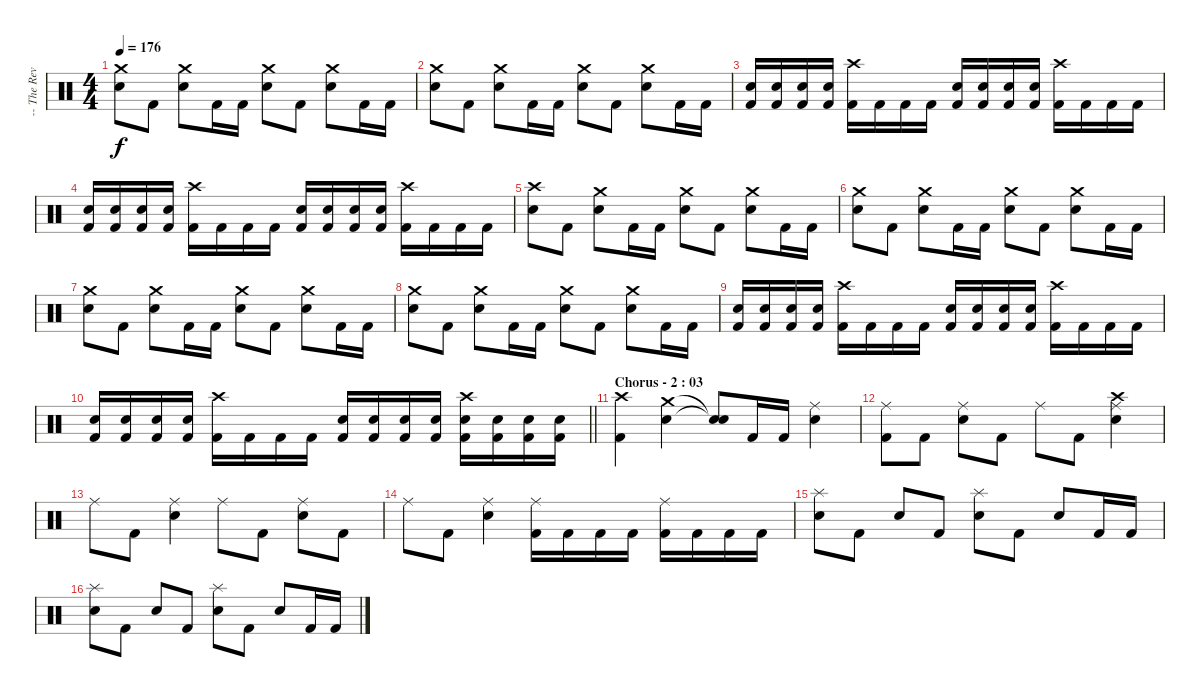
\track ("-- The Reverend - Drums" "-- The Rev") {instrument percussion}
\staff {score}
\articulation defaults
\ts (4 4)
\tempo 176
\clef neutral
\ks c
("Crash medium (hit)" "Electric Snare (hit)").8{dy f} "Kick (hit) 2".8 ("Crash medium (hit)" "Electric Snare (hit)").8 "Kick (hit) 2".16 "Kick (hit) 2".16 ("Crash medium (hit)" "Electric Snare (hit)").8 "Kick (hit) 2".8 ("Crash medium (hit)" "Electric Snare (hit)").8 "Kick (hit) 2".16 "Kick (hit) 2".16 |
("Crash medium (hit)" "Electric Snare (hit)").8 "Kick (hit) 2".8 ("Crash medium (hit)" "Electric Snare (hit)").8 "Kick (hit) 2".16 "Kick (hit) 2".16 ("Crash medium (hit)" "Electric Snare (hit)").8 "Kick (hit) 2".8 ("Crash medium (hit)" "Electric Snare (hit)").8 "Kick (hit) 2".16 "Kick (hit) 2".16 |
("Electric Snare (hit)" "Kick (hit) 2").16 ("Electric Snare (hit)" "Kick (hit) 2").16 ("Electric Snare (hit)" "Kick (hit) 2").16 ("Electric Snare (hit)" "Kick (hit) 2").16 ("Crash high (hit)" "Kick (hit) 2").16 "Kick (hit) 2".16 "Kick (hit) 2".16 "Kick (hit) 2".16 ("Electric Snare (hit)" "Kick (hit) 2").16 ("Electric Snare (hit)" "Kick (hit) 2").16 ("Electric Snare (hit)" "Kick (hit) 2").16 ("Electric Snare (hit)" "Kick (hit) 2").16 ("Crash high (hit)" "Kick (hit) 2").16 "Kick (hit) 2".16 "Kick (hit) 2".16 "Kick (hit) 2".16 |
("Electric Snare (hit)" "Kick (hit) 2").16 ("Electric Snare (hit)" "Kick (hit) 2").16 ("Electric Snare (hit)" "Kick (hit) 2").16 ("Electric Snare (hit)" "Kick (hit) 2").16 ("Crash high (hit)" "Kick (hit) 2").16 "Kick (hit) 2".16 "Kick (hit) 2".16 "Kick (hit) 2".16 ("Electric Snare (hit)" "Kick (hit) 2").16 ("Electric Snare (hit)" "Kick (hit) 2").16 ("Electric Snare (hit)" "Kick (hit) 2").16 ("Electric Snare (hit)" "Kick (hit) 2").16 ("Crash high (hit)" "Kick (hit) 2").16 "Kick (hit) 2".16 "Kick (hit) 2".16 "Kick (hit) 2".16 |
("Crash high (hit)" "Electric Snare (hit)").8 "Kick (hit) 2".8 ("Crash medium (hit)" "Electric Snare (hit)").8 "Kick (hit) 2".16 "Kick (hit) 2".16 ("Crash medium (hit)" "Electric Snare (hit)").8 "Kick (hit) 2".8 ("Crash medium (hit)" "Electric Snare (hit)").8 "Kick (hit) 2".16 "Kick (hit) 2".16 |
("Crash medium (hit)" "Electric Snare (hit)").8 "Kick (hit) 2".8 ("Crash medium (hit)" "Electric Snare (hit)").8 "Kick (hit) 2".16 "Kick (hit) 2".16 ("Crash medium (hit)" "Electric Snare (hit)").8 "Kick (hit) 2".8 ("Crash medium (hit)" "Electric Snare (hit)").8 "Kick (hit) 2".16 "Kick (hit) 2".16 |
("Crash medium (hit)" "Electric Snare (hit)").8 "Kick (hit) 2".8 ("Crash medium (hit)" "Electric Snare (hit)").8 "Kick (hit) 2".16 "Kick (hit) 2".16 ("Crash medium (hit)" "Electric Snare (hit)").8 "Kick (hit) 2".8 ("Crash medium (hit)" "Electric Snare (hit)").8 "Kick (hit) 2".16 "Kick (hit) 2".16 |
("Crash medium (hit)" "Electric Snare (hit)").8 "Kick (hit) 2".8 ("Crash medium (hit)" "Electric Snare (hit)").8 "Kick (hit) 2".16 "Kick (hit) 2".16 ("Crash medium (hit)" "Electric Snare (hit)").8 "Kick (hit) 2".8 ("Crash medium (hit)" "Electric Snare (hit)").8 "Kick (hit) 2".16 "Kick (hit) 2".16 |
("Electric Snare (hit)" "Kick (hit) 2").16 ("Electric Snare (hit)" "Kick (hit) 2").16 ("Electric Snare (hit)" "Kick (hit) 2").16 ("Electric Snare (hit)" "Kick (hit) 2").16 ("Crash high (hit)" "Kick (hit) 2").16 "Kick (hit) 2".16 "Kick (hit) 2".16 "Kick (hit) 2".16 ("Electric Snare (hit)" "Kick (hit) 2").16 ("Electric Snare (hit)" "Kick (hit) 2").16 ("Electric Snare (hit)" "Kick (hit) 2").16 ("Electric Snare (hit)" "Kick (hit) 2").16 ("Crash high (hit)" "Kick (hit) 2").16 "Kick (hit) 2".16 "Kick (hit) 2".16 "Kick (hit) 2".16 |
\barLineRight lightlight
("Electric Snare (hit)" "Kick (hit) 2").16 ("Electric Snare (hit)" "Kick (hit) 2").16 ("Electric Snare (hit)" "Kick (hit) 2").16 ("Electric Snare (hit)" "Kick (hit) 2").16 ("Crash high (hit)" "Kick (hit) 2").16 "Kick (hit) 2".16 "Kick (hit) 2".16 "Kick (hit) 2".16 ("Electric Snare (hit)" "Kick (hit) 2").16 ("Electric Snare (hit)" "Kick (hit) 2").16 ("Electric Snare (hit)" "Kick (hit) 2").16 ("Electric Snare (hit)" "Kick (hit) 2").16 ("Crash high (hit)" "Electric Snare (hit)" "Kick (hit) 2").16 ("Electric Snare (hit)" "Kick (hit) 2").16 ("Electric Snare (hit)" "Kick (hit) 2").16 ("Electric Snare (hit)" "Kick (hit) 2").16 |
\section ("" "Chorus - 2 : 03")
("Crash high (hit)" "Kick (hit) 2").4 ("Crash medium (hit)" "Snare (hit) 2").4 ("Snare (hit)"{t} "Snare (hit)"{t}).8 "Kick (hit) 2".16 "Kick (hit) 2".16 ("Ride (middle)" "Snare (hit) 2").4 |
("Ride (middle)" "Kick (hit) 2").8 "Kick (hit) 2".8 ("Ride (middle)" "Snare (hit) 2").8 "Kick (hit) 2".8 "Ride (middle)".8 "Kick (hit) 2".8 ("Crash high (hit)" "Ride (middle)" "Snare (hit) 2").4 |
"Ride (middle)".8 "Kick (hit) 2".8 ("Ride (middle)" "Snare (hit) 2").4 "Ride (middle)".8 "Kick (hit) 2".8 ("Ride (middle)" "Snare (hit) 2").8 "Kick (hit) 2".8 |
"Ride (middle)".8 "Kick (hit) 2".8 ("Ride (middle)" "Snare (hit) 2").4 ("Ride (middle)" "Kick (hit) 2").16 "Kick (hit) 2".16 "Kick (hit) 2".16 "Kick (hit) 2".16 ("Ride (middle)" "Kick (hit) 2").16 "Kick (hit) 2".16 "Kick (hit) 2".16 "Kick (hit) 2".16 |
("Splash (hit)" "Electric Snare (hit)").8 "Kick (hit) 2".8 "Electric Snare (hit)".8 "Kick (hit) 2".8 ("Splash (hit)" "Electric Snare (hit)").8 "Kick (hit) 2".8 "Electric Snare (hit)".8 "Kick (hit) 2".16 "Kick (hit) 2".16 |
("Splash (hit)" "Electric Snare (hit)").8 "Kick (hit) 2".8 "Electric Snare (hit)".8 "Kick (hit) 2".8 ("Splash (hit)" "Electric Snare (hit)").8 "Kick (hit) 2".8 "Electric Snare (hit)".8 "Kick (hit) 2".16 "Kick (hit) 2".16
